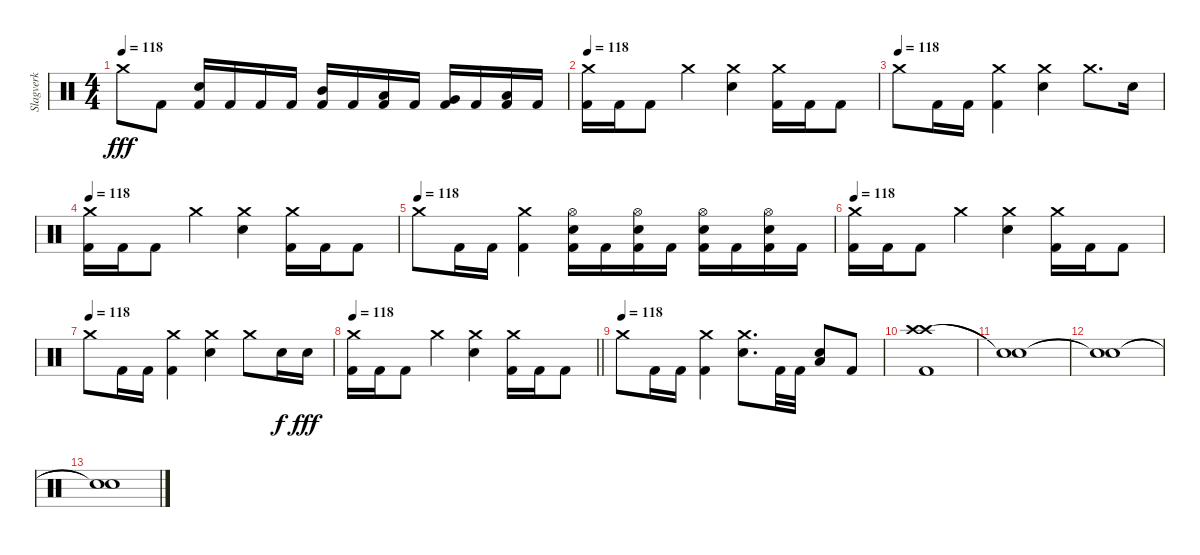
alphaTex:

\track ("Slagverk" "Slagverk") {instrument percussion}
\staff {score}
\articulation defaults
\ts (4 4)
\tempo 118
\clef neutral
\ks c "Crash medium (hit)".8{dy fff} "Kick (hit) 2".8
("Electric Snare (hit)" "Kick (hit) 2").16 "Kick (hit) 2".16 "Kick (hit) 2".16 "Kick (hit) 2".16 ("Mid Tom (hit)" "Kick (hit) 2").16 "Kick (hit) 2".16 ("Low Tom (hit)" "Kick (hit) 2").16 "Kick (hit) 2".16 ("Very Low Tom (hit)" "Kick (hit) 2").16 "Kick (hit) 2".16 ("Low Floor Tom (hit)" "Kick (hit) 2").16 "Kick (hit) 2".16 |
\tempo 118
("Crash medium (hit)" "Kick (hit) 2").16 "Kick (hit) 2".16 "Kick (hit) 2".8 "Crash medium (hit)".4 ("Crash medium (hit)" "Electric Snare (hit)").4 ("Crash medium (hit)" "Kick (hit) 2").16 "Kick (hit) 2".16 "Kick (hit) 2".8 |
\tempo (118)
"Crash medium (hit)".8 "Kick (hit) 2".16 "Kick (hit) 2".16 ("Crash medium (hit)" "Kick (hit) 2").4 ("Crash medium (hit)" "Electric Snare (hit)").4 "Crash medium (hit)".8{d} "Electric Snare (hit)".16 |
\tempo 118
("Crash medium (hit)" "Kick (hit) 2").16 "Kick (hit) 2".16 "Kick (hit) 2".8 "Crash medium (hit)".4 ("Crash medium (hit)" "Electric Snare (hit)").4 ("Crash medium (hit)" "Kick (hit) 2").16 "Kick (hit) 2".16 "Kick (hit) 2".8 |
\tempo (118)
"Crash medium (hit)".8 "Kick (hit) 2".16 "Kick (hit) 2".16 ("Crash medium (hit)" "Kick (hit) 2").4 ("Hi-Hat (open)" "Electric Snare (hit)" "Kick (hit) 2").16 "Kick (hit) 2".16 ("Hi-Hat (open)" "Electric Snare (hit)" "Kick (hit) 2").16 "Kick (hit) 2".16 ("Hi-Hat (open)" "Electric Snare (hit)" "Kick (hit) 2").16 "Kick (hit) 2".16 ("Hi-Hat (open)" "Electric Snare (hit)" "Kick (hit) 2").16 "Kick (hit) 2".16 |
\tempo 118
("Crash medium (hit)" "Kick (hit) 2").16 "Kick (hit) 2".16 "Kick (hit) 2".8 "Crash medium (hit)".4 ("Crash medium (hit)" "Electric Snare (hit)").4 ("Crash medium (hit)" "Kick (hit) 2").16 "Kick (hit) 2".16 "Kick (hit) 2".8 |
\tempo (118)
"Crash medium (hit)".8 "Kick (hit) 2".16 "Kick (hit) 2".16 ("Crash medium (hit)" "Kick (hit) 2").4 ("Crash medium (hit)" "Electric Snare (hit)").4 "Crash medium (hit)".8 "Electric Snare (hit)".16{dy f} "Electric Snare (hit)".16{dy fff} |
\tempo 118
\barLineRight lightlight
("Crash medium (hit)" "Kick (hit) 2").16 "Kick (hit) 2".16 "Kick (hit) 2".8 "Crash medium (hit)".4 ("Crash medium (hit)" "Electric Snare (hit)").4 ("Crash medium (hit)" "Kick (hit) 2").16 "Kick (hit) 2".16 "Kick (hit) 2".8 |
\tempo (118)
"Crash medium (hit)".8 "Kick (hit) 2".16 "Kick (hit) 2".16 ("Crash medium (hit)" "Kick (hit) 2").4 ("Crash medium (hit)" "Electric Snare (hit)").8{d} "Kick (hit) 2".32 "Kick (hit) 2".32 ("Low Floor Tom (hit)" "Snare (hit) 2").8 "Kick (hit) 2".8 |
("Crash high (hit)" "Crash high (hit)" "Kick (hit) 2").1 |
("Snare (hit)"{t} "Snare (hit)"{t}).1 |
("Snare (hit)"{t} "Snare (hit)"{t}).1 |
("Snare (hit)"{t} "Snare (hit)"{t}).1
